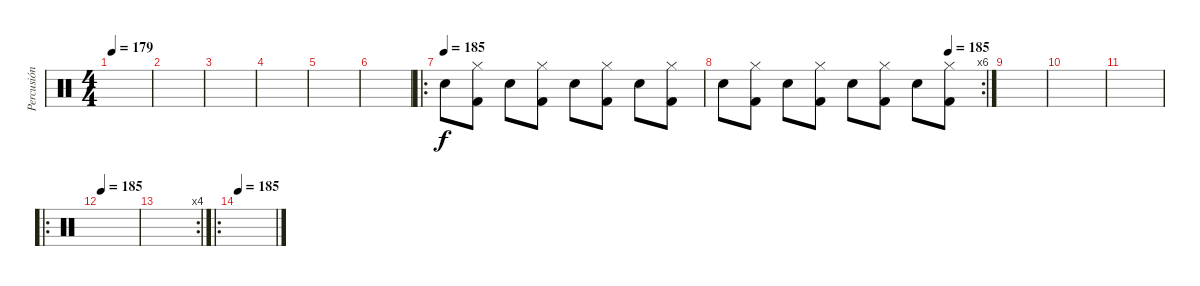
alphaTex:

\track ("Percusión" "Percusión") {mute instrument percussion}
\staff {score}
\articulation defaults
\ts (4 4)
\tempo 179
\clef neutral
\ks c
|
|
|
|
|
|
\ro
\tempo (185)
"Electric Snare (hit)".8 ("Kick (hit) 2" "Hi-Hat (closed)").8 "Electric Snare (hit)".8 ("Kick (hit) 2" "Hi-Hat (closed)").8 "Electric Snare (hit)".8 ("Kick (hit) 2" "Hi-Hat (closed)").8 "Electric Snare (hit)".8 ("Kick (hit) 2" "Hi-Hat (closed)").8 |
\rc 6
\tempo (185 0.875)
"Electric Snare (hit)".8 ("Kick (hit) 2" "Hi-Hat (closed)").8 "Electric Snare (hit)".8 ("Kick (hit) 2" "Hi-Hat (closed)").8 "Electric Snare (hit)".8 ("Kick (hit) 2" "Hi-Hat (closed)").8 "Electric Snare (hit)".8 ("Kick (hit) 2" "Hi-Hat (closed)").8 |
|
|
|
\ro
\tempo 185
|
\rc 4
|
\ro
\tempo 185
